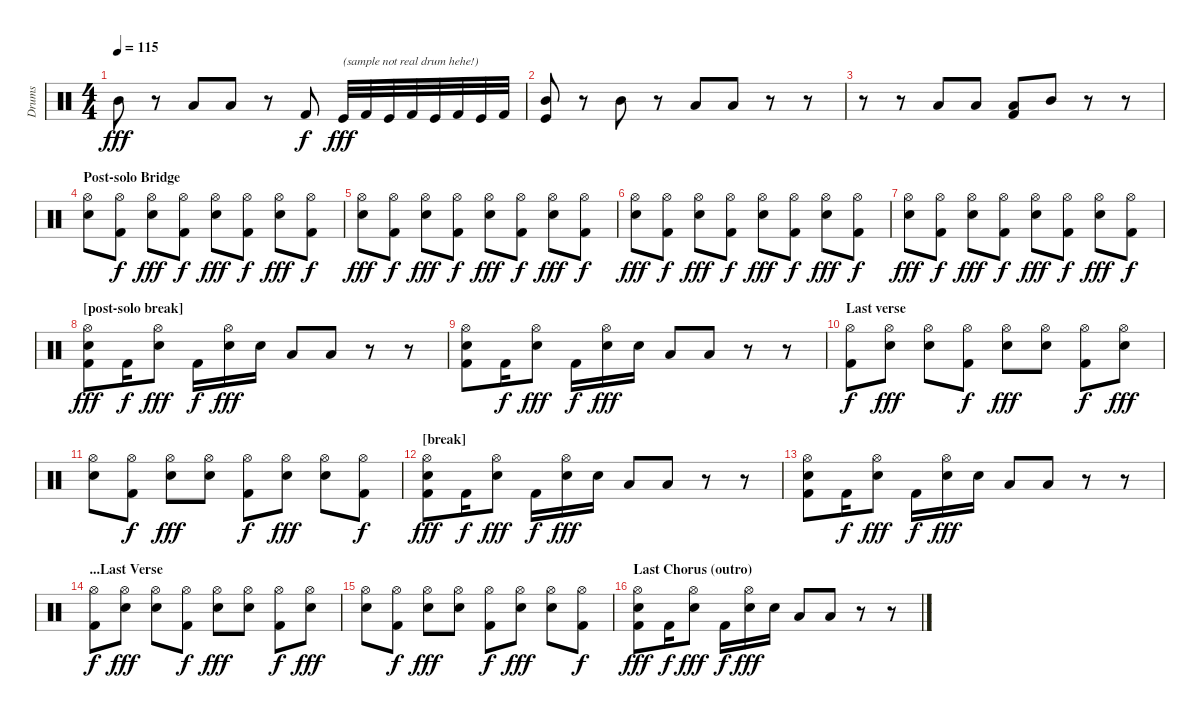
\track ("Drums" "Drums") {instrument percussion}
\staff {score}
\articulation defaults
\ts (4 4)
\tempo 115
\clef neutral
\ks c "Mid Tom (hit)".8{dy fff balance 12}
r.8 "Low Tom (hit)".8{balance 4} "Low Tom (hit)".8 r.8 "Kick (hit) 2".8{dy f balance 8} "Kick (hit)".32{txt "(sample not real drum hehe!)" dy fff balance 12} "Kick (hit) 2".32 "Kick (hit)".32{balance 10} "Kick (hit) 2".32 "Kick (hit)".32{balance 8} "Kick (hit) 2".32 "Kick (hit)".32{balance 6} "Kick (hit) 2".32 |
("Mid Tom (hit)" "Kick (hit)").8{balance 12} r.8 "Mid Tom (hit)".8{balance 12} r.8 "Low Tom (hit)".8{balance 4} "Low Tom (hit)".8 r.8 r.8 |
r.8 r.8 "Low Tom (hit)".8{balance 4} "Low Tom (hit)".8 ("Low Tom (hit)" "Kick (hit) 2").8 "Mid Tom (hit)".8{balance 12} r.8 r.8 |
\section ("" "Post-solo Bridge")
("Hi-Hat (open)" "Snare (hit) 2").8{balance 8} ("Hi-Hat (open)" "Kick (hit) 2").8{dy f} ("Hi-Hat (open)" "Snare (hit) 2").8{dy fff} ("Hi-Hat (open)" "Kick (hit) 2").8{dy f} ("Hi-Hat (open)" "Snare (hit) 2").8{dy fff} ("Hi-Hat (open)" "Kick (hit) 2").8{dy f} ("Hi-Hat (open)" "Snare (hit) 2").8{dy fff} ("Hi-Hat (open)" "Kick (hit) 2").8{dy f} |
("Hi-Hat (open)" "Snare (hit) 2").8{dy fff} ("Hi-Hat (open)" "Kick (hit) 2").8{dy f} ("Hi-Hat (open)" "Snare (hit) 2").8{dy fff} ("Hi-Hat (open)" "Kick (hit) 2").8{dy f} ("Hi-Hat (open)" "Snare (hit) 2").8{dy fff} ("Hi-Hat (open)" "Kick (hit) 2").8{dy f} ("Hi-Hat (open)" "Snare (hit) 2").8{dy fff} ("Hi-Hat (open)" "Kick (hit) 2").8{dy f} |
("Hi-Hat (open)" "Snare (hit) 2").8{dy fff} ("Hi-Hat (open)" "Kick (hit) 2").8{dy f} ("Hi-Hat (open)" "Snare (hit) 2").8{dy fff} ("Hi-Hat (open)" "Kick (hit) 2").8{dy f} ("Hi-Hat (open)" "Snare (hit) 2").8{dy fff} ("Hi-Hat (open)" "Kick (hit) 2").8{dy f} ("Hi-Hat (open)" "Snare (hit) 2").8{dy fff} ("Hi-Hat (open)" "Kick (hit) 2").8{dy f} |
("Hi-Hat (open)" "Snare (hit) 2").8{dy fff} ("Hi-Hat (open)" "Kick (hit) 2").8{dy f} ("Hi-Hat (open)" "Snare (hit) 2").8{dy fff} ("Hi-Hat (open)" "Kick (hit) 2").8{dy f} ("Hi-Hat (open)" "Snare (hit) 2").8{dy fff} ("Hi-Hat (open)" "Kick (hit) 2").8{dy f} ("Hi-Hat (open)" "Snare (hit) 2").8{dy fff} ("Hi-Hat (open)" "Kick (hit) 2").8{dy f} |
\section ("" "[post-solo break]")
("Hi-Hat (open)" "Snare (hit) 2" "Kick (hit) 2").8{dy fff} "Kick (hit) 2".16{dy f} ("Hi-Hat (open)" "Snare (hit) 2").8{dy fff} "Kick (hit) 2".16{dy f} ("Hi-Hat (open)" "Snare (hit) 2").16{dy fff} "Snare (hit) 2".16 "Low Floor Tom (hit)".8 "Low Floor Tom (hit)".8 r.8 r.8 |
("Hi-Hat (open)" "Snare (hit) 2" "Kick (hit) 2").8 "Kick (hit) 2".16{dy f} ("Hi-Hat (open)" "Snare (hit) 2").8{dy fff} "Kick (hit) 2".16{dy f} ("Hi-Hat (open)" "Snare (hit) 2").16{dy fff} "Snare (hit) 2".16 "Low Floor Tom (hit)".8 "Low Floor Tom (hit)".8 r.8 r.8 |
\section ("" "Last verse")
("Hi-Hat (open)" "Kick (hit) 2").8{dy f} ("Hi-Hat (open)" "Snare (hit) 2").8{dy fff} ("Hi-Hat (open)" "Snare (hit) 2").8 ("Hi-Hat (open)" "Kick (hit) 2").8{dy f} ("Hi-Hat (open)" "Snare (hit) 2").8{dy fff} ("Hi-Hat (open)" "Snare (hit) 2").8 ("Hi-Hat (open)" "Kick (hit) 2").8{dy f} ("Hi-Hat (open)" "Snare (hit) 2").8{dy fff} |
("Hi-Hat (open)" "Snare (hit) 2").8 ("Hi-Hat (open)" "Kick (hit) 2").8{dy f} ("Hi-Hat (open)" "Snare (hit) 2").8{dy fff} ("Hi-Hat (open)" "Snare (hit) 2").8 ("Hi-Hat (open)" "Kick (hit) 2").8{dy f} ("Hi-Hat (open)" "Snare (hit) 2").8{dy fff} ("Hi-Hat (open)" "Snare (hit) 2").8 ("Hi-Hat (open)" "Kick (hit) 2").8{dy f} |
\section ("" "[break]")
("Hi-Hat (open)" "Snare (hit) 2" "Kick (hit) 2").8{dy fff} "Kick (hit) 2".16{dy f} ("Hi-Hat (open)" "Snare (hit) 2").8{dy fff} "Kick (hit) 2".16{dy f} ("Hi-Hat (open)" "Snare (hit) 2").16{dy fff} "Snare (hit) 2".16 "Low Floor Tom (hit)".8 "Low Floor Tom (hit)".8 r.8 r.8 |
("Hi-Hat (open)" "Snare (hit) 2" "Kick (hit) 2").8 "Kick (hit) 2".16{dy f} ("Hi-Hat (open)" "Snare (hit) 2").8{dy fff} "Kick (hit) 2".16{dy f} ("Hi-Hat (open)" "Snare (hit) 2").16{dy fff} "Snare (hit) 2".16 "Low Floor Tom (hit)".8 "Low Floor Tom (hit)".8 r.8 r.8 |
\section ("" "...Last Verse")
("Hi-Hat (open)" "Kick (hit) 2").8{dy f} ("Hi-Hat (open)" "Snare (hit) 2").8{dy fff} ("Hi-Hat (open)" "Snare (hit) 2").8 ("Hi-Hat (open)" "Kick (hit) 2").8{dy f} ("Hi-Hat (open)" "Snare (hit) 2").8{dy fff} ("Hi-Hat (open)" "Snare (hit) 2").8 ("Hi-Hat (open)" "Kick (hit) 2").8{dy f} ("Hi-Hat (open)" "Snare (hit) 2").8{dy fff} |
("Hi-Hat (open)" "Snare (hit) 2").8 ("Hi-Hat (open)" "Kick (hit) 2").8{dy f} ("Hi-Hat (open)" "Snare (hit) 2").8{dy fff} ("Hi-Hat (open)" "Snare (hit) 2").8 ("Hi-Hat (open)" "Kick (hit) 2").8{dy f} ("Hi-Hat (open)" "Snare (hit) 2").8{dy fff} ("Hi-Hat (open)" "Snare (hit) 2").8 ("Hi-Hat (open)" "Kick (hit) 2").8{dy f} |
\section ("" "Last Chorus (outro)")
("Hi-Hat (open)" "Snare (hit) 2" "Kick (hit) 2").8{dy fff} "Kick (hit) 2".16{dy f} ("Hi-Hat (open)" "Snare (hit) 2").8{dy fff} "Kick (hit) 2".16{dy f} ("Hi-Hat (open)" "Snare (hit) 2").16{dy fff} "Snare (hit) 2".16 "Low Floor Tom (hit)".8 "Low Floor Tom (hit)".8 r.8 r.8
